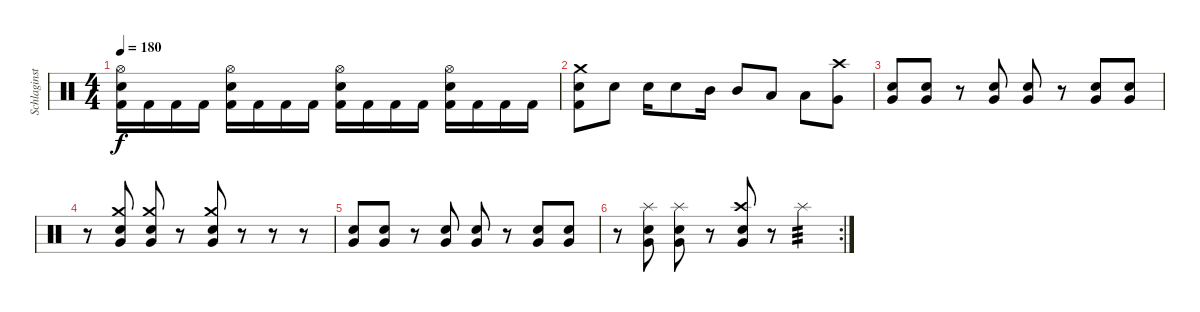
\track ("Schlaginstrumente - Auswahl" "Schlaginst") {instrument percussion}
\staff {score}
\articulation defaults
\ts (4 4)
\tempo 180
\clef neutral
\ks c
("Hi-Hat (open)" "Electric Snare (hit)" "Kick (hit) 2").16{dy f} "Kick (hit) 2".16 "Kick (hit) 2".16 "Kick (hit) 2".16 ("Hi-Hat (open)" "Electric Snare (hit)" "Kick (hit) 2").16 "Kick (hit) 2".16 "Kick (hit) 2".16 "Kick (hit) 2".16 ("Hi-Hat (open)" "Electric Snare (hit)" "Kick (hit) 2").16 "Kick (hit) 2".16 "Kick (hit) 2".16 "Kick (hit) 2".16 ("Hi-Hat (open)" "Electric Snare (hit)" "Kick (hit) 2").16 "Kick (hit) 2".16 "Kick (hit) 2".16 "Kick (hit) 2".16 |
("Crash medium (hit)" "Electric Snare (hit)" "Kick (hit) 2").8 "Electric Snare (hit)".8 "Electric Snare (hit)".16 "Electric Snare (hit)".8 "Mid Tom (hit)".16 "Mid Tom (hit)".8 "Low Tom (hit)".8 "Low Tom (hit)".8 ("Crash high (hit)" "Very Low Tom (hit)").8 |
("Electric Snare (hit)" "Very Low Tom (hit)").8 ("Electric Snare (hit)" "Very Low Tom (hit)").8 r.8 ("Electric Snare (hit)" "Very Low Tom (hit)").8 ("Electric Snare (hit)" "Very Low Tom (hit)").8 r.8 ("Electric Snare (hit)" "Very Low Tom (hit)").8 ("Electric Snare (hit)" "Very Low Tom (hit)").8 |
r.8 ("Crash medium (hit)" "Electric Snare (hit)" "Very Low Tom (hit)").8 ("Crash medium (hit)" "Electric Snare (hit)" "Very Low Tom (hit)").8 r.8 ("Crash medium (hit)" "Electric Snare (hit)" "Very Low Tom (hit)").8 r.8 r.8 r.8 |
("Electric Snare (hit)" "Very Low Tom (hit)").8 ("Electric Snare (hit)" "Very Low Tom (hit)").8 r.8 ("Electric Snare (hit)" "Very Low Tom (hit)").8 ("Electric Snare (hit)" "Very Low Tom (hit)").8 r.8 ("Electric Snare (hit)" "Very Low Tom (hit)").8 ("Electric Snare (hit)" "Very Low Tom (hit)").8 |
\rc 2
r.8 ("Splash (hit)" "Electric Snare (hit)" "Very Low Tom (hit)").8 ("Splash (hit)" "Electric Snare (hit)" "Very Low Tom (hit)").8 r.8 ("Crash high (hit)" "Electric Snare (hit)" "Very Low Tom (hit)").8 r.8 "Splash (hit)".4{tp 3}
